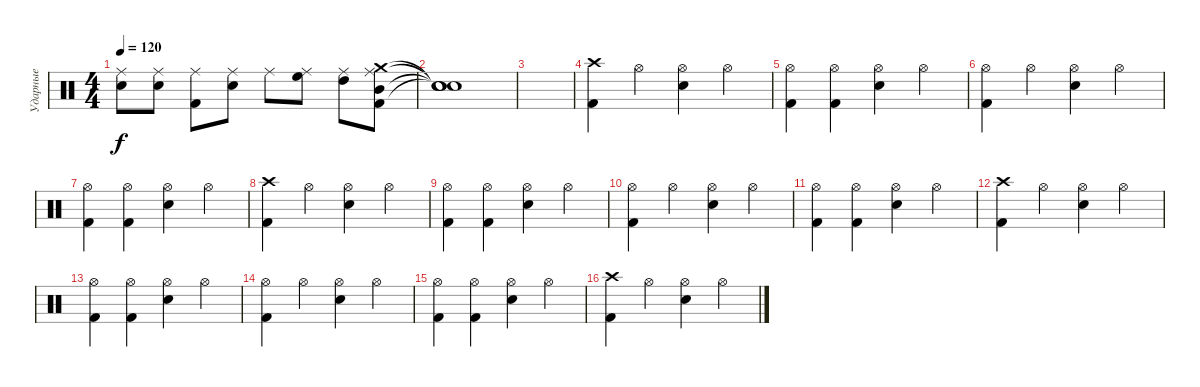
\track ("Ударные" "Ударные") {instrument percussion}
\staff {score}
\articulation defaults
\ts (4 4)
\tempo 120
\clef neutral
\ks c
("Ride (middle)" "Snare (hit) 2").8{dy f} ("Ride (middle)" "Snare (hit) 2").8 ("Ride (middle)" "Kick (hit) 2").8 ("Ride (middle)" "Snare (hit) 2").8 "Ride (middle)".8 ("Ride (middle)" "High Floor Tom (hit)").8 ("Ride (middle)" "High Tom (hit)").8 ("Crash medium (hit)" "Ride (middle)" "Mid Tom (hit)" "Kick (hit) 2").8 |
("Snare (hit)"{t} "Snare (hit)"{t} "Snare (hit)"{t} "Snare (hit)"{t}).1 |
|
("Crash high (hit)" "Kick (hit) 2").4 "Hi-Hat (open)".4 ("Hi-Hat (open)" "Snare (hit) 2").4 "Hi-Hat (open)".4 |
("Hi-Hat (open)" "Kick (hit) 2").4 ("Hi-Hat (open)" "Kick (hit) 2").4 ("Hi-Hat (open)" "Snare (hit) 2").4 "Hi-Hat (open)".4 |
("Hi-Hat (open)" "Kick (hit) 2").4 "Hi-Hat (open)".4 ("Hi-Hat (open)" "Snare (hit) 2").4 "Hi-Hat (open)".4 |
("Hi-Hat (open)" "Kick (hit) 2").4 ("Hi-Hat (open)" "Kick (hit) 2").4 ("Hi-Hat (open)" "Snare (hit) 2").4 "Hi-Hat (open)".4 |
("Crash high (hit)" "Kick (hit) 2").4 "Hi-Hat (open)".4 ("Hi-Hat (open)" "Snare (hit) 2").4 "Hi-Hat (open)".4 |
("Hi-Hat (open)" "Kick (hit) 2").4 ("Hi-Hat (open)" "Kick (hit) 2").4 ("Hi-Hat (open)" "Snare (hit) 2").4 "Hi-Hat (open)".4 |
("Hi-Hat (open)" "Kick (hit) 2").4 "Hi-Hat (open)".4 ("Hi-Hat (open)" "Snare (hit) 2").4 "Hi-Hat (open)".4 |
("Hi-Hat (open)" "Kick (hit) 2").4 ("Hi-Hat (open)" "Kick (hit) 2").4 ("Hi-Hat (open)" "Snare (hit) 2").4 "Hi-Hat (open)".4 |
("Crash high (hit)" "Kick (hit) 2").4 "Hi-Hat (open)".4 ("Hi-Hat (open)" "Snare (hit) 2").4 "Hi-Hat (open)".4 |
("Hi-Hat (open)" "Kick (hit) 2").4 ("Hi-Hat (open)" "Kick (hit) 2").4 ("Hi-Hat (open)" "Snare (hit) 2").4 "Hi-Hat (open)".4 |
("Hi-Hat (open)" "Kick (hit) 2").4 "Hi-Hat (open)".4 ("Hi-Hat (open)" "Snare (hit) 2").4 "Hi-Hat (open)".4 |
("Hi-Hat (open)" "Kick (hit) 2").4 ("Hi-Hat (open)" "Kick (hit) 2").4 ("Hi-Hat (open)" "Snare (hit) 2").4 "Hi-Hat (open)".4 |
("Crash high (hit)" "Kick (hit) 2").4 "Hi-Hat (open)".4 ("Hi-Hat (open)" "Snare (hit) 2").4 "Hi-Hat (open)".4
